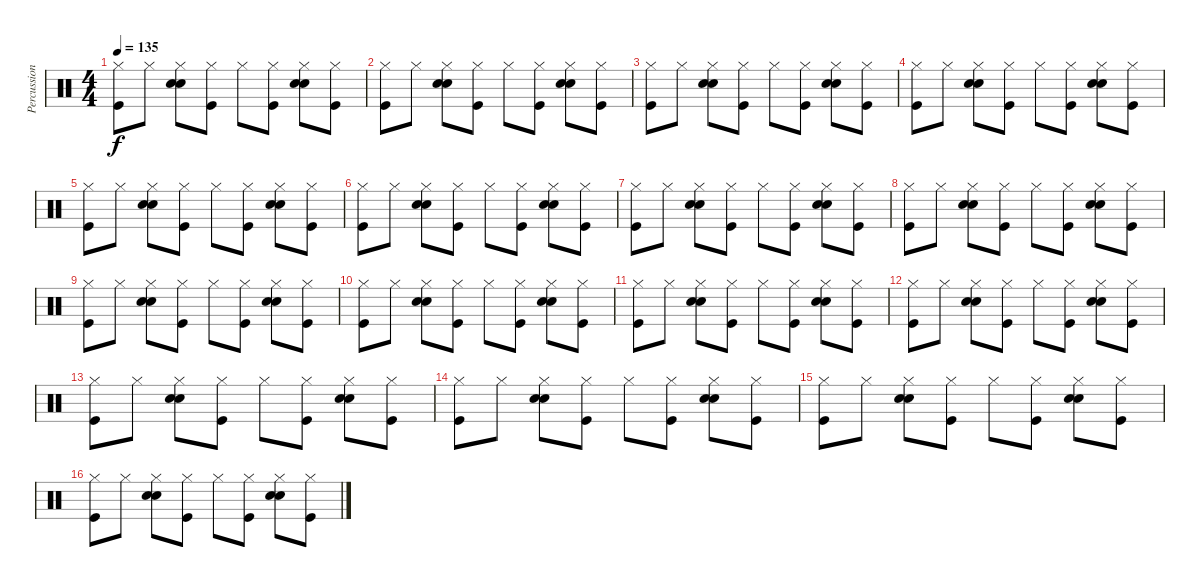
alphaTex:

\track ("Percussion" "Percussion") {instrument percussion}
\staff {score}
\articulation defaults
\ts (4 4)
\tempo 135
\clef neutral
\ks c
("Hi-Hat (closed)" "Kick (hit)").8{dy f} "Hi-Hat (closed)".8 ("Hi-Hat (closed)" "Hand Clap (hit)" "Snare (hit) 2").8 ("Hi-Hat (closed)" "Kick (hit)").8 "Hi-Hat (closed)".8 ("Hi-Hat (closed)" "Kick (hit)").8 ("Hi-Hat (closed)" "Snare (hit) 2" "Hand Clap (hit)").8 ("Hi-Hat (closed)" "Kick (hit)").8 |
("Hi-Hat (closed)" "Kick (hit)").8 "Hi-Hat (closed)".8 ("Hi-Hat (closed)" "Hand Clap (hit)" "Snare (hit) 2").8 ("Hi-Hat (closed)" "Kick (hit)").8 "Hi-Hat (closed)".8 ("Hi-Hat (closed)" "Kick (hit)").8 ("Hi-Hat (closed)" "Snare (hit) 2" "Hand Clap (hit)").8 ("Hi-Hat (closed)" "Kick (hit)").8 |
("Hi-Hat (closed)" "Kick (hit)").8 "Hi-Hat (closed)".8 ("Hi-Hat (closed)" "Hand Clap (hit)" "Snare (hit) 2").8 ("Hi-Hat (closed)" "Kick (hit)").8 "Hi-Hat (closed)".8 ("Hi-Hat (closed)" "Kick (hit)").8 ("Hi-Hat (closed)" "Snare (hit) 2" "Hand Clap (hit)").8 ("Hi-Hat (closed)" "Kick (hit)").8 |
("Hi-Hat (closed)" "Kick (hit)").8 "Hi-Hat (closed)".8 ("Hi-Hat (closed)" "Hand Clap (hit)" "Snare (hit) 2").8 ("Hi-Hat (closed)" "Kick (hit)").8 "Hi-Hat (closed)".8 ("Hi-Hat (closed)" "Kick (hit)").8 ("Hi-Hat (closed)" "Snare (hit) 2" "Hand Clap (hit)").8 ("Hi-Hat (closed)" "Kick (hit)").8 |
("Hi-Hat (closed)" "Kick (hit)").8 "Hi-Hat (closed)".8 ("Hi-Hat (closed)" "Hand Clap (hit)" "Snare (hit) 2").8 ("Hi-Hat (closed)" "Kick (hit)").8 "Hi-Hat (closed)".8 ("Hi-Hat (closed)" "Kick (hit)").8 ("Hi-Hat (closed)" "Snare (hit) 2" "Hand Clap (hit)").8 ("Hi-Hat (closed)" "Kick (hit)").8 |
("Hi-Hat (closed)" "Kick (hit)").8 "Hi-Hat (closed)".8 ("Hi-Hat (closed)" "Hand Clap (hit)" "Snare (hit) 2").8 ("Hi-Hat (closed)" "Kick (hit)").8 "Hi-Hat (closed)".8 ("Hi-Hat (closed)" "Kick (hit)").8 ("Hi-Hat (closed)" "Snare (hit) 2" "Hand Clap (hit)").8 ("Hi-Hat (closed)" "Kick (hit)").8 |
("Hi-Hat (closed)" "Kick (hit)").8 "Hi-Hat (closed)".8 ("Hi-Hat (closed)" "Hand Clap (hit)" "Snare (hit) 2").8 ("Hi-Hat (closed)" "Kick (hit)").8 "Hi-Hat (closed)".8 ("Hi-Hat (closed)" "Kick (hit)").8 ("Hi-Hat (closed)" "Snare (hit) 2" "Hand Clap (hit)").8 ("Hi-Hat (closed)" "Kick (hit)").8 |
("Hi-Hat (closed)" "Kick (hit)").8 "Hi-Hat (closed)".8 ("Hi-Hat (closed)" "Hand Clap (hit)" "Snare (hit) 2").8 ("Hi-Hat (closed)" "Kick (hit)").8 "Hi-Hat (closed)".8 ("Hi-Hat (closed)" "Kick (hit)").8 ("Hi-Hat (closed)" "Snare (hit) 2" "Hand Clap (hit)").8 ("Hi-Hat (closed)" "Kick (hit)").8 |
("Hi-Hat (closed)" "Kick (hit)").8 "Hi-Hat (closed)".8 ("Hi-Hat (closed)" "Hand Clap (hit)" "Snare (hit) 2").8 ("Hi-Hat (closed)" "Kick (hit)").8 "Hi-Hat (closed)".8 ("Hi-Hat (closed)" "Kick (hit)").8 ("Hi-Hat (closed)" "Snare (hit) 2" "Hand Clap (hit)").8 ("Hi-Hat (closed)" "Kick (hit)").8 |
("Hi-Hat (closed)" "Kick (hit)").8 "Hi-Hat (closed)".8 ("Hi-Hat (closed)" "Hand Clap (hit)" "Snare (hit) 2").8 ("Hi-Hat (closed)" "Kick (hit)").8 "Hi-Hat (closed)".8 ("Hi-Hat (closed)" "Kick (hit)").8 ("Hi-Hat (closed)" "Snare (hit) 2" "Hand Clap (hit)").8 ("Hi-Hat (closed)" "Kick (hit)").8 |
("Hi-Hat (closed)" "Kick (hit)").8 "Hi-Hat (closed)".8 ("Hi-Hat (closed)" "Hand Clap (hit)" "Snare (hit) 2").8 ("Hi-Hat (closed)" "Kick (hit)").8 "Hi-Hat (closed)".8 ("Hi-Hat (closed)" "Kick (hit)").8 ("Hi-Hat (closed)" "Snare (hit) 2" "Hand Clap (hit)").8 ("Hi-Hat (closed)" "Kick (hit)").8 |
("Hi-Hat (closed)" "Kick (hit)").8 "Hi-Hat (closed)".8 ("Hi-Hat (closed)" "Hand Clap (hit)" "Snare (hit) 2").8 ("Hi-Hat (closed)" "Kick (hit)").8 "Hi-Hat (closed)".8 ("Hi-Hat (closed)" "Kick (hit)").8 ("Hi-Hat (closed)" "Snare (hit) 2" "Hand Clap (hit)").8 ("Hi-Hat (closed)" "Kick (hit)").8 |
("Hi-Hat (closed)" "Kick (hit)").8 "Hi-Hat (closed)".8 ("Hi-Hat (closed)" "Hand Clap (hit)" "Snare (hit) 2").8 ("Hi-Hat (closed)" "Kick (hit)").8 "Hi-Hat (closed)".8 ("Hi-Hat (closed)" "Kick (hit)").8 ("Hi-Hat (closed)" "Snare (hit) 2" "Hand Clap (hit)").8 ("Hi-Hat (closed)" "Kick (hit)").8 |
("Hi-Hat (closed)" "Kick (hit)").8 "Hi-Hat (closed)".8 ("Hi-Hat (closed)" "Hand Clap (hit)" "Snare (hit) 2").8 ("Hi-Hat (closed)" "Kick (hit)").8 "Hi-Hat (closed)".8 ("Hi-Hat (closed)" "Kick (hit)").8 ("Hi-Hat (closed)" "Snare (hit) 2" "Hand Clap (hit)").8 ("Hi-Hat (closed)" "Kick (hit)").8 |
("Hi-Hat (closed)" "Kick (hit)").8 "Hi-Hat (closed)".8 ("Hi-Hat (closed)" "Hand Clap (hit)" "Snare (hit) 2").8 ("Hi-Hat (closed)" "Kick (hit)").8 "Hi-Hat (closed)".8 ("Hi-Hat (closed)" "Kick (hit)").8 ("Hi-Hat (closed)" "Snare (hit) 2" "Hand Clap (hit)").8 ("Hi-Hat (closed)" "Kick (hit)").8 |
("Hi-Hat (closed)" "Kick (hit)").8 "Hi-Hat (closed)".8 ("Hi-Hat (closed)" "Hand Clap (hit)" "Snare (hit) 2").8 ("Hi-Hat (closed)" "Kick (hit)").8 "Hi-Hat (closed)".8 ("Hi-Hat (closed)" "Kick (hit)").8 ("Hi-Hat (closed)" "Snare (hit) 2" "Hand Clap (hit)").8 ("Hi-Hat (closed)" "Kick (hit)").8
